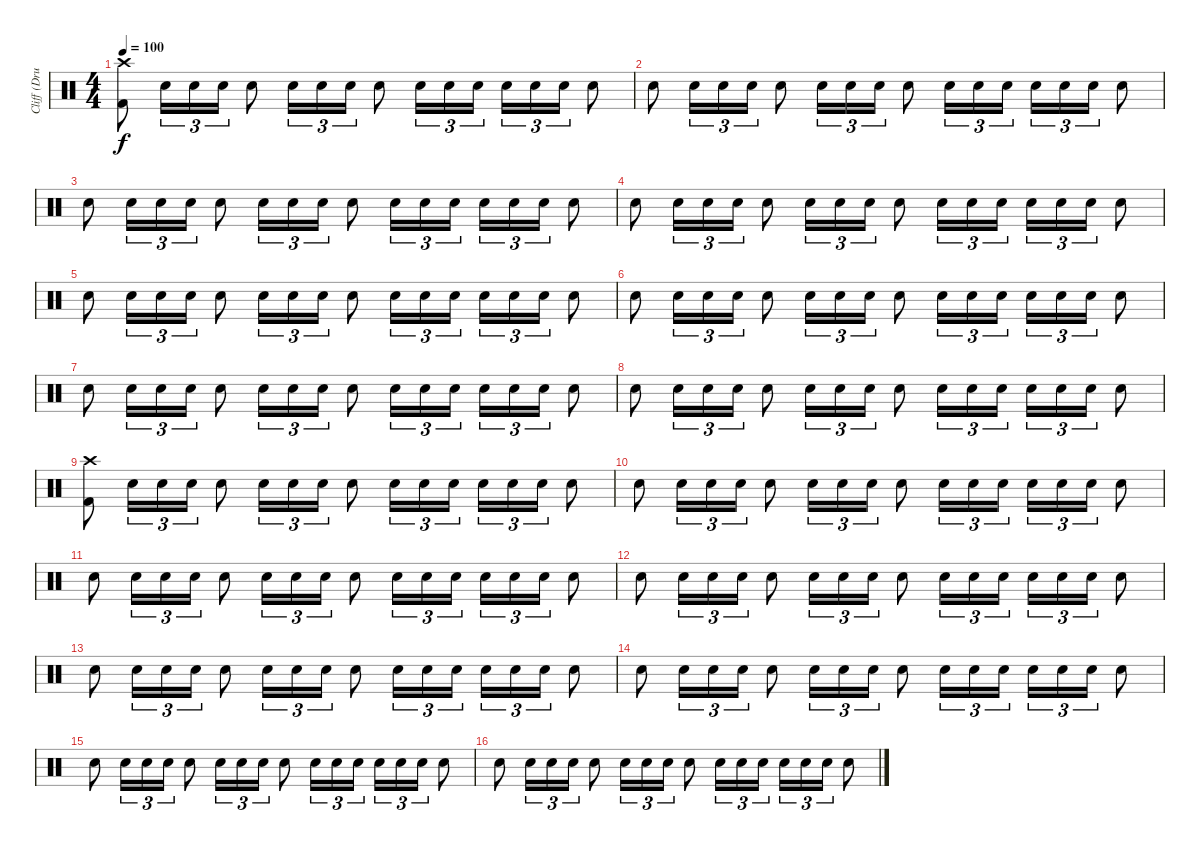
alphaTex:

\track ("Cliff (Drums)" "Cliff (Dru") {instrument percussion}
\staff {score}
\articulation defaults
\ts (4 4)
\tempo 100
\clef neutral
\ks c
("Crash high (hit)" "Kick (hit) 2").8{dy f} "Snare (hit) 2".16{tu (3 2)} "Snare (hit) 2".16{tu (3 2)} "Snare (hit) 2".16{tu (3 2)} "Snare (hit) 2".8 "Snare (hit) 2".16{tu (3 2)} "Snare (hit) 2".16{tu (3 2)} "Snare (hit) 2".16{tu (3 2)} "Snare (hit) 2".8 "Snare (hit) 2".16{tu (3 2)} "Snare (hit) 2".16{tu (3 2)} "Snare (hit) 2".16{tu (3 2)} "Snare (hit) 2".16{tu (3 2)} "Snare (hit) 2".16{tu (3 2)} "Snare (hit) 2".16{tu (3 2)} "Snare (hit) 2".8 |
"Snare (hit) 2".8 "Snare (hit) 2".16{tu (3 2)} "Snare (hit) 2".16{tu (3 2)} "Snare (hit) 2".16{tu (3 2)} "Snare (hit) 2".8 "Snare (hit) 2".16{tu (3 2)} "Snare (hit) 2".16{tu (3 2)} "Snare (hit) 2".16{tu (3 2)} "Snare (hit) 2".8 "Snare (hit) 2".16{tu (3 2)} "Snare (hit) 2".16{tu (3 2)} "Snare (hit) 2".16{tu (3 2)} "Snare (hit) 2".16{tu (3 2)} "Snare (hit) 2".16{tu (3 2)} "Snare (hit) 2".16{tu (3 2)} "Snare (hit) 2".8 |
"Snare (hit) 2".8 "Snare (hit) 2".16{tu (3 2)} "Snare (hit) 2".16{tu (3 2)} "Snare (hit) 2".16{tu (3 2)} "Snare (hit) 2".8 "Snare (hit) 2".16{tu (3 2)} "Snare (hit) 2".16{tu (3 2)} "Snare (hit) 2".16{tu (3 2)} "Snare (hit) 2".8 "Snare (hit) 2".16{tu (3 2)} "Snare (hit) 2".16{tu (3 2)} "Snare (hit) 2".16{tu (3 2)} "Snare (hit) 2".16{tu (3 2)} "Snare (hit) 2".16{tu (3 2)} "Snare (hit) 2".16{tu (3 2)} "Snare (hit) 2".8 |
"Snare (hit) 2".8 "Snare (hit) 2".16{tu (3 2)} "Snare (hit) 2".16{tu (3 2)} "Snare (hit) 2".16{tu (3 2)} "Snare (hit) 2".8 "Snare (hit) 2".16{tu (3 2)} "Snare (hit) 2".16{tu (3 2)} "Snare (hit) 2".16{tu (3 2)} "Snare (hit) 2".8 "Snare (hit) 2".16{tu (3 2)} "Snare (hit) 2".16{tu (3 2)} "Snare (hit) 2".16{tu (3 2)} "Snare (hit) 2".16{tu (3 2)} "Snare (hit) 2".16{tu (3 2)} "Snare (hit) 2".16{tu (3 2)} "Snare (hit) 2".8 |
"Snare (hit) 2".8 "Snare (hit) 2".16{tu (3 2)} "Snare (hit) 2".16{tu (3 2)} "Snare (hit) 2".16{tu (3 2)} "Snare (hit) 2".8 "Snare (hit) 2".16{tu (3 2)} "Snare (hit) 2".16{tu (3 2)} "Snare (hit) 2".16{tu (3 2)} "Snare (hit) 2".8 "Snare (hit) 2".16{tu (3 2)} "Snare (hit) 2".16{tu (3 2)} "Snare (hit) 2".16{tu (3 2)} "Snare (hit) 2".16{tu (3 2)} "Snare (hit) 2".16{tu (3 2)} "Snare (hit) 2".16{tu (3 2)} "Snare (hit) 2".8 |
"Snare (hit) 2".8 "Snare (hit) 2".16{tu (3 2)} "Snare (hit) 2".16{tu (3 2)} "Snare (hit) 2".16{tu (3 2)} "Snare (hit) 2".8 "Snare (hit) 2".16{tu (3 2)} "Snare (hit) 2".16{tu (3 2)} "Snare (hit) 2".16{tu (3 2)} "Snare (hit) 2".8 "Snare (hit) 2".16{tu (3 2)} "Snare (hit) 2".16{tu (3 2)} "Snare (hit) 2".16{tu (3 2)} "Snare (hit) 2".16{tu (3 2)} "Snare (hit) 2".16{tu (3 2)} "Snare (hit) 2".16{tu (3 2)} "Snare (hit) 2".8 |
"Snare (hit) 2".8 "Snare (hit) 2".16{tu (3 2)} "Snare (hit) 2".16{tu (3 2)} "Snare (hit) 2".16{tu (3 2)} "Snare (hit) 2".8 "Snare (hit) 2".16{tu (3 2)} "Snare (hit) 2".16{tu (3 2)} "Snare (hit) 2".16{tu (3 2)} "Snare (hit) 2".8 "Snare (hit) 2".16{tu (3 2)} "Snare (hit) 2".16{tu (3 2)} "Snare (hit) 2".16{tu (3 2)} "Snare (hit) 2".16{tu (3 2)} "Snare (hit) 2".16{tu (3 2)} "Snare (hit) 2".16{tu (3 2)} "Snare (hit) 2".8 |
"Snare (hit) 2".8 "Snare (hit) 2".16{tu (3 2)} "Snare (hit) 2".16{tu (3 2)} "Snare (hit) 2".16{tu (3 2)} "Snare (hit) 2".8 "Snare (hit) 2".16{tu (3 2)} "Snare (hit) 2".16{tu (3 2)} "Snare (hit) 2".16{tu (3 2)} "Snare (hit) 2".8 "Snare (hit) 2".16{tu (3 2)} "Snare (hit) 2".16{tu (3 2)} "Snare (hit) 2".16{tu (3 2)} "Snare (hit) 2".16{tu (3 2)} "Snare (hit) 2".16{tu (3 2)} "Snare (hit) 2".16{tu (3 2)} "Snare (hit) 2".8 |
("Crash high (hit)" "Kick (hit) 2").8 "Snare (hit) 2".16{tu (3 2)} "Snare (hit) 2".16{tu (3 2)} "Snare (hit) 2".16{tu (3 2)} "Snare (hit) 2".8 "Snare (hit) 2".16{tu (3 2)} "Snare (hit) 2".16{tu (3 2)} "Snare (hit) 2".16{tu (3 2)} "Snare (hit) 2".8 "Snare (hit) 2".16{tu (3 2)} "Snare (hit) 2".16{tu (3 2)} "Snare (hit) 2".16{tu (3 2)} "Snare (hit) 2".16{tu (3 2)} "Snare (hit) 2".16{tu (3 2)} "Snare (hit) 2".16{tu (3 2)} "Snare (hit) 2".8 |
"Snare (hit) 2".8 "Snare (hit) 2".16{tu (3 2)} "Snare (hit) 2".16{tu (3 2)} "Snare (hit) 2".16{tu (3 2)} "Snare (hit) 2".8 "Snare (hit) 2".16{tu (3 2)} "Snare (hit) 2".16{tu (3 2)} "Snare (hit) 2".16{tu (3 2)} "Snare (hit) 2".8 "Snare (hit) 2".16{tu (3 2)} "Snare (hit) 2".16{tu (3 2)} "Snare (hit) 2".16{tu (3 2)} "Snare (hit) 2".16{tu (3 2)} "Snare (hit) 2".16{tu (3 2)} "Snare (hit) 2".16{tu (3 2)} "Snare (hit) 2".8 |
"Snare (hit) 2".8 "Snare (hit) 2".16{tu (3 2)} "Snare (hit) 2".16{tu (3 2)} "Snare (hit) 2".16{tu (3 2)} "Snare (hit) 2".8 "Snare (hit) 2".16{tu (3 2)} "Snare (hit) 2".16{tu (3 2)} "Snare (hit) 2".16{tu (3 2)} "Snare (hit) 2".8 "Snare (hit) 2".16{tu (3 2)} "Snare (hit) 2".16{tu (3 2)} "Snare (hit) 2".16{tu (3 2)} "Snare (hit) 2".16{tu (3 2)} "Snare (hit) 2".16{tu (3 2)} "Snare (hit) 2".16{tu (3 2)} "Snare (hit) 2".8 |
"Snare (hit) 2".8 "Snare (hit) 2".16{tu (3 2)} "Snare (hit) 2".16{tu (3 2)} "Snare (hit) 2".16{tu (3 2)} "Snare (hit) 2".8 "Snare (hit) 2".16{tu (3 2)} "Snare (hit) 2".16{tu (3 2)} "Snare (hit) 2".16{tu (3 2)} "Snare (hit) 2".8 "Snare (hit) 2".16{tu (3 2)} "Snare (hit) 2".16{tu (3 2)} "Snare (hit) 2".16{tu (3 2)} "Snare (hit) 2".16{tu (3 2)} "Snare (hit) 2".16{tu (3 2)} "Snare (hit) 2".16{tu (3 2)} "Snare (hit) 2".8 |
"Snare (hit) 2".8 "Snare (hit) 2".16{tu (3 2)} "Snare (hit) 2".16{tu (3 2)} "Snare (hit) 2".16{tu (3 2)} "Snare (hit) 2".8 "Snare (hit) 2".16{tu (3 2)} "Snare (hit) 2".16{tu (3 2)} "Snare (hit) 2".16{tu (3 2)} "Snare (hit) 2".8 "Snare (hit) 2".16{tu (3 2)} "Snare (hit) 2".16{tu (3 2)} "Snare (hit) 2".16{tu (3 2)} "Snare (hit) 2".16{tu (3 2)} "Snare (hit) 2".16{tu (3 2)} "Snare (hit) 2".16{tu (3 2)} "Snare (hit) 2".8 |
"Snare (hit) 2".8 "Snare (hit) 2".16{tu (3 2)} "Snare (hit) 2".16{tu (3 2)} "Snare (hit) 2".16{tu (3 2)} "Snare (hit) 2".8 "Snare (hit) 2".16{tu (3 2)} "Snare (hit) 2".16{tu (3 2)} "Snare (hit) 2".16{tu (3 2)} "Snare (hit) 2".8 "Snare (hit) 2".16{tu (3 2)} "Snare (hit) 2".16{tu (3 2)} "Snare (hit) 2".16{tu (3 2)} "Snare (hit) 2".16{tu (3 2)} "Snare (hit) 2".16{tu (3 2)} "Snare (hit) 2".16{tu (3 2)} "Snare (hit) 2".8 |
"Snare (hit) 2".8 "Snare (hit) 2".16{tu (3 2)} "Snare (hit) 2".16{tu (3 2)} "Snare (hit) 2".16{tu (3 2)} "Snare (hit) 2".8 "Snare (hit) 2".16{tu (3 2)} "Snare (hit) 2".16{tu (3 2)} "Snare (hit) 2".16{tu (3 2)} "Snare (hit) 2".8 "Snare (hit) 2".16{tu (3 2)} "Snare (hit) 2".16{tu (3 2)} "Snare (hit) 2".16{tu (3 2)} "Snare (hit) 2".16{tu (3 2)} "Snare (hit) 2".16{tu (3 2)} "Snare (hit) 2".16{tu (3 2)} "Snare (hit) 2".8 |
"Snare (hit) 2".8 "Snare (hit) 2".16{tu (3 2)} "Snare (hit) 2".16{tu (3 2)} "Snare (hit) 2".16{tu (3 2)} "Snare (hit) 2".8 "Snare (hit) 2".16{tu (3 2)} "Snare (hit) 2".16{tu (3 2)} "Snare (hit) 2".16{tu (3 2)} "Snare (hit) 2".8 "Snare (hit) 2".16{tu (3 2)} "Snare (hit) 2".16{tu (3 2)} "Snare (hit) 2".16{tu (3 2)} "Snare (hit) 2".16{tu (3 2)} "Snare (hit) 2".16{tu (3 2)} "Snare (hit) 2".16{tu (3 2)} "Snare (hit) 2".8
